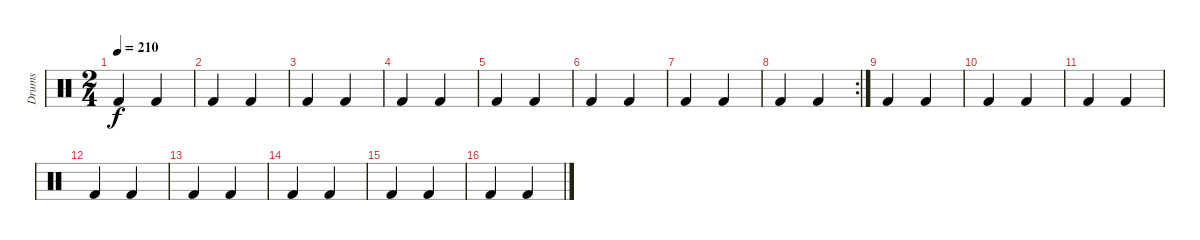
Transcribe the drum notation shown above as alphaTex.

\track ("Drums" "Drums") {instrument percussion}
\staff {score}
\articulation defaults
\ts (2 4)
\tempo 210
\clef neutral
\ks c "Kick (hit) 2".4{dy f} "Kick (hit) 2".4
|
"Kick (hit) 2".4 "Kick (hit) 2".4 |
"Kick (hit) 2".4 "Kick (hit) 2".4 |
"Kick (hit) 2".4 "Kick (hit) 2".4 |
"Kick (hit) 2".4 "Kick (hit) 2".4 |
"Kick (hit) 2".4 "Kick (hit) 2".4 |
"Kick (hit) 2".4 "Kick (hit) 2".4 |
\rc 2 "Kick (hit) 2".4 "Kick (hit) 2".4
|
"Kick (hit) 2".4 "Kick (hit) 2".4 |
"Kick (hit) 2".4 "Kick (hit) 2".4 |
"Kick (hit) 2".4 "Kick (hit) 2".4 |
"Kick (hit) 2".4 "Kick (hit) 2".4 |
"Kick (hit) 2".4 "Kick (hit) 2".4 |
"Kick (hit) 2".4 "Kick (hit) 2".4 |
"Kick (hit) 2".4 "Kick (hit) 2".4 |
"Kick (hit) 2".4 "Kick (hit) 2".4
